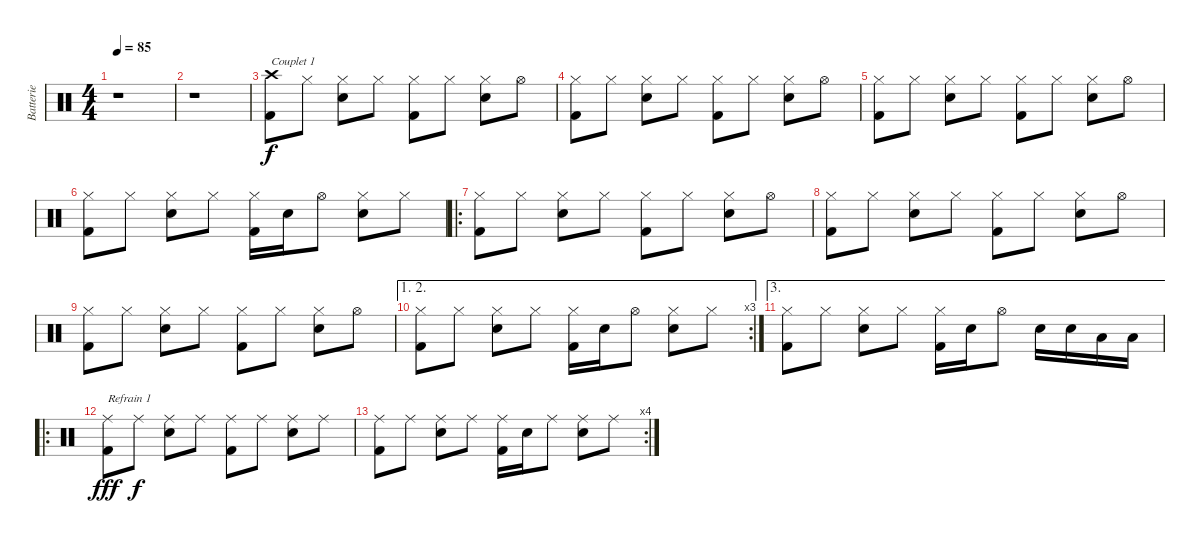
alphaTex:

\track ("Batterie" "Batterie") {instrument percussion}
\staff {score}
\articulation defaults
\ts (4 4)
\tempo 85
\clef neutral
\ks c
r.1{dy f} |
r.1 |
("Crash high (hit)" "Kick (hit) 2").8{txt "Couplet 1"} "Hi-Hat (closed)".8 ("Hi-Hat (closed)" "Snare (hit) 2").8 "Hi-Hat (closed)".8 ("Hi-Hat (closed)" "Kick (hit) 2").8 "Hi-Hat (closed)".8 ("Hi-Hat (closed)" "Snare (hit) 2").8 "Hi-Hat (open)".8 |
("Hi-Hat (closed)" "Kick (hit) 2").8 "Hi-Hat (closed)".8 ("Hi-Hat (closed)" "Snare (hit) 2").8 "Hi-Hat (closed)".8 ("Hi-Hat (closed)" "Kick (hit) 2").8 "Hi-Hat (closed)".8 ("Hi-Hat (closed)" "Snare (hit) 2").8 "Hi-Hat (open)".8 |
("Hi-Hat (closed)" "Kick (hit) 2").8 "Hi-Hat (closed)".8 ("Hi-Hat (closed)" "Snare (hit) 2").8 "Hi-Hat (closed)".8 ("Hi-Hat (closed)" "Kick (hit) 2").8 "Hi-Hat (closed)".8 ("Hi-Hat (closed)" "Snare (hit) 2").8 "Hi-Hat (open)".8 |
("Hi-Hat (closed)" "Kick (hit) 2").8 "Hi-Hat (closed)".8 ("Hi-Hat (closed)" "Snare (hit) 2").8 "Hi-Hat (closed)".8 ("Hi-Hat (closed)" "Kick (hit) 2").16 "Snare (hit) 2".16 "Hi-Hat (open)".8 ("Hi-Hat (closed)" "Snare (hit) 2").8 "Hi-Hat (closed)".8 |
\ro
("Hi-Hat (closed)" "Kick (hit) 2").8 "Hi-Hat (closed)".8 ("Hi-Hat (closed)" "Snare (hit) 2").8 "Hi-Hat (closed)".8 ("Hi-Hat (closed)" "Kick (hit) 2").8 "Hi-Hat (closed)".8 ("Hi-Hat (closed)" "Snare (hit) 2").8 "Hi-Hat (open)".8 |
("Hi-Hat (closed)" "Kick (hit) 2").8 "Hi-Hat (closed)".8 ("Hi-Hat (closed)" "Snare (hit) 2").8 "Hi-Hat (closed)".8 ("Hi-Hat (closed)" "Kick (hit) 2").8 "Hi-Hat (closed)".8 ("Hi-Hat (closed)" "Snare (hit) 2").8 "Hi-Hat (open)".8 |
("Hi-Hat (closed)" "Kick (hit) 2").8 "Hi-Hat (closed)".8 ("Hi-Hat (closed)" "Snare (hit) 2").8 "Hi-Hat (closed)".8 ("Hi-Hat (closed)" "Kick (hit) 2").8 "Hi-Hat (closed)".8 ("Hi-Hat (closed)" "Snare (hit) 2").8 "Hi-Hat (open)".8 |
\ae (1 2)
\rc 3
("Hi-Hat (closed)" "Kick (hit) 2").8 "Hi-Hat (closed)".8 ("Hi-Hat (closed)" "Snare (hit) 2").8 "Hi-Hat (closed)".8 ("Hi-Hat (closed)" "Kick (hit) 2").16 "Snare (hit) 2".16 "Hi-Hat (open)".8 ("Hi-Hat (closed)" "Snare (hit) 2").8 "Hi-Hat (closed)".8 |
\ae 3
("Hi-Hat (closed)" "Kick (hit) 2").8 "Hi-Hat (closed)".8 ("Hi-Hat (closed)" "Snare (hit) 2").8 "Hi-Hat (closed)".8 ("Hi-Hat (closed)" "Kick (hit) 2").16 "Snare (hit) 2".16 "Hi-Hat (open)".8 "Snare (hit) 2".16 "Snare (hit) 2".16 "Low Tom (hit)".16 "Low Tom (hit)".16 |
\ro
("Ride (middle)" "Kick (hit) 2").8{txt "Refrain 1" dy fff} "Ride (middle)".8{dy f} ("Ride (middle)" "Snare (hit) 2").8 "Ride (middle)".8 ("Ride (middle)" "Kick (hit) 2").8 "Ride (middle)".8 ("Ride (middle)" "Snare (hit) 2").8 "Ride (middle)".8 |
\rc 4
("Ride (middle)" "Kick (hit) 2").8 "Ride (middle)".8 ("Ride (middle)" "Snare (hit) 2").8 "Ride (middle)".8 ("Ride (middle)" "Kick (hit) 2").16 "Snare (hit) 2".16 "Ride (middle)".8 ("Ride (middle)" "Snare (hit) 2").8 "Ride (middle)".8
